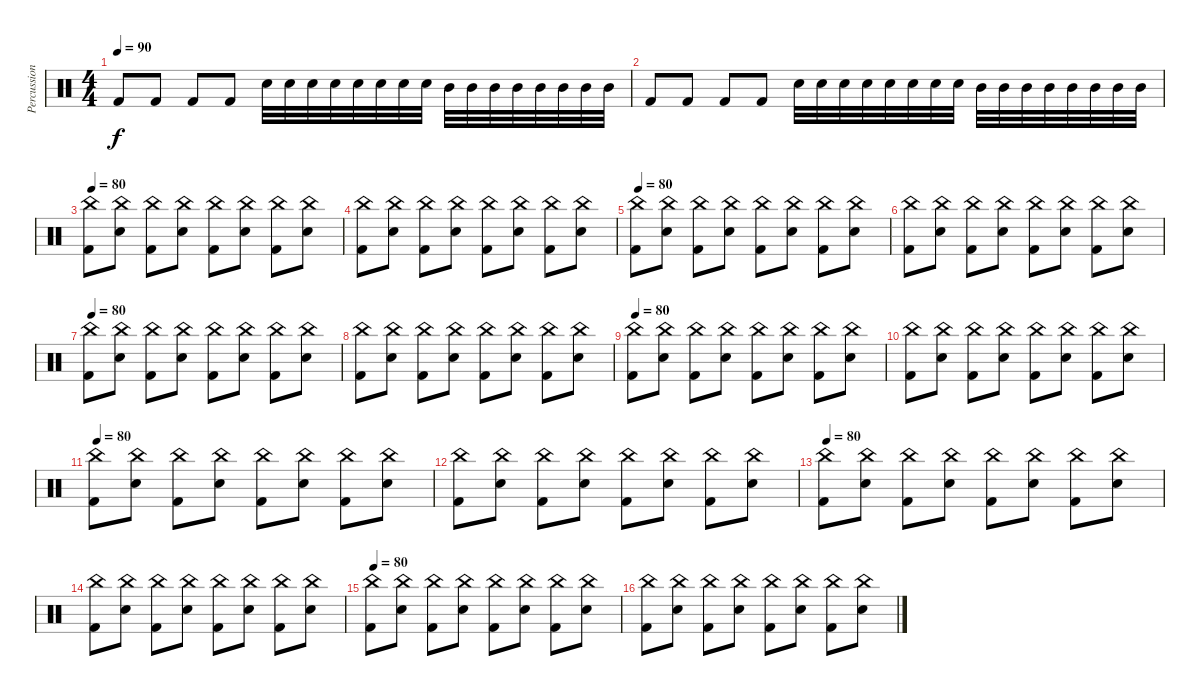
\track ("Percussion" "Percussion") {instrument percussion}
\staff {score}
\articulation defaults
\ts (4 4)
\tempo 90
\clef neutral
\ks c "Kick (hit) 2".8{dy f} "Kick (hit) 2".8 "Kick (hit) 2".8 "Kick (hit) 2".8 "Snare (hit) 2".32 "Snare (hit) 2".32 "Snare (hit) 2".32 "Snare (hit) 2".32 "Snare (hit) 2".32 "Snare (hit) 2".32 "Snare (hit) 2".32 "Snare (hit) 2".32 "Mid Tom (hit)".32 "Mid Tom (hit)".32 "Mid Tom (hit)".32 "Mid Tom (hit)".32 "Mid Tom (hit)".32 "Mid Tom (hit)".32 "Mid Tom (hit)".32 "Mid Tom (hit)".32
|
"Kick (hit) 2".8 "Kick (hit) 2".8 "Kick (hit) 2".8 "Kick (hit) 2".8 "Snare (hit) 2".32 "Snare (hit) 2".32 "Snare (hit) 2".32 "Snare (hit) 2".32 "Snare (hit) 2".32 "Snare (hit) 2".32 "Snare (hit) 2".32 "Snare (hit) 2".32 "Mid Tom (hit)".32 "Mid Tom (hit)".32 "Mid Tom (hit)".32 "Mid Tom (hit)".32 "Mid Tom (hit)".32 "Mid Tom (hit)".32 "Mid Tom (hit)".32 "Mid Tom (hit)".32 |
\tempo 80
("China (hit)" "Kick (hit) 2").8 ("China (hit)" "Snare (hit) 2").8 ("China (hit)" "Kick (hit) 2").8 ("China (hit)" "Snare (hit) 2").8 ("China (hit)" "Kick (hit) 2").8 ("China (hit)" "Snare (hit) 2").8 ("China (hit)" "Kick (hit) 2").8 ("China (hit)" "Snare (hit) 2").8 |
("China (hit)" "Kick (hit) 2").8 ("China (hit)" "Snare (hit) 2").8 ("China (hit)" "Kick (hit) 2").8 ("China (hit)" "Snare (hit) 2").8 ("China (hit)" "Kick (hit) 2").8 ("China (hit)" "Snare (hit) 2").8 ("China (hit)" "Kick (hit) 2").8 ("China (hit)" "Snare (hit) 2").8 |
\tempo 80
("China (hit)" "Kick (hit) 2").8 ("China (hit)" "Snare (hit) 2").8 ("China (hit)" "Kick (hit) 2").8 ("China (hit)" "Snare (hit) 2").8 ("China (hit)" "Kick (hit) 2").8 ("China (hit)" "Snare (hit) 2").8 ("China (hit)" "Kick (hit) 2").8 ("China (hit)" "Snare (hit) 2").8 |
("China (hit)" "Kick (hit) 2").8 ("China (hit)" "Snare (hit) 2").8 ("China (hit)" "Kick (hit) 2").8 ("China (hit)" "Snare (hit) 2").8 ("China (hit)" "Kick (hit) 2").8 ("China (hit)" "Snare (hit) 2").8 ("China (hit)" "Kick (hit) 2").8 ("China (hit)" "Snare (hit) 2").8 |
\tempo 80
("China (hit)" "Kick (hit) 2").8 ("China (hit)" "Snare (hit) 2").8 ("China (hit)" "Kick (hit) 2").8 ("China (hit)" "Snare (hit) 2").8 ("China (hit)" "Kick (hit) 2").8 ("China (hit)" "Snare (hit) 2").8 ("China (hit)" "Kick (hit) 2").8 ("China (hit)" "Snare (hit) 2").8 |
("China (hit)" "Kick (hit) 2").8 ("China (hit)" "Snare (hit) 2").8 ("China (hit)" "Kick (hit) 2").8 ("China (hit)" "Snare (hit) 2").8 ("China (hit)" "Kick (hit) 2").8 ("China (hit)" "Snare (hit) 2").8 ("China (hit)" "Kick (hit) 2").8 ("China (hit)" "Snare (hit) 2").8 |
\tempo 80
("China (hit)" "Kick (hit) 2").8 ("China (hit)" "Snare (hit) 2").8 ("China (hit)" "Kick (hit) 2").8 ("China (hit)" "Snare (hit) 2").8 ("China (hit)" "Kick (hit) 2").8 ("China (hit)" "Snare (hit) 2").8 ("China (hit)" "Kick (hit) 2").8 ("China (hit)" "Snare (hit) 2").8 |
("China (hit)" "Kick (hit) 2").8 ("China (hit)" "Snare (hit) 2").8 ("China (hit)" "Kick (hit) 2").8 ("China (hit)" "Snare (hit) 2").8 ("China (hit)" "Kick (hit) 2").8 ("China (hit)" "Snare (hit) 2").8 ("China (hit)" "Kick (hit) 2").8 ("China (hit)" "Snare (hit) 2").8 |
\tempo 80
("China (hit)" "Kick (hit) 2").8 ("China (hit)" "Snare (hit) 2").8 ("China (hit)" "Kick (hit) 2").8 ("China (hit)" "Snare (hit) 2").8 ("China (hit)" "Kick (hit) 2").8 ("China (hit)" "Snare (hit) 2").8 ("China (hit)" "Kick (hit) 2").8 ("China (hit)" "Snare (hit) 2").8 |
("China (hit)" "Kick (hit) 2").8 ("China (hit)" "Snare (hit) 2").8 ("China (hit)" "Kick (hit) 2").8 ("China (hit)" "Snare (hit) 2").8 ("China (hit)" "Kick (hit) 2").8 ("China (hit)" "Snare (hit) 2").8 ("China (hit)" "Kick (hit) 2").8 ("China (hit)" "Snare (hit) 2").8 |
\tempo 80
("China (hit)" "Kick (hit) 2").8 ("China (hit)" "Snare (hit) 2").8 ("China (hit)" "Kick (hit) 2").8 ("China (hit)" "Snare (hit) 2").8 ("China (hit)" "Kick (hit) 2").8 ("China (hit)" "Snare (hit) 2").8 ("China (hit)" "Kick (hit) 2").8 ("China (hit)" "Snare (hit) 2").8 |
("China (hit)" "Kick (hit) 2").8 ("China (hit)" "Snare (hit) 2").8 ("China (hit)" "Kick (hit) 2").8 ("China (hit)" "Snare (hit) 2").8 ("China (hit)" "Kick (hit) 2").8 ("China (hit)" "Snare (hit) 2").8 ("China (hit)" "Kick (hit) 2").8 ("China (hit)" "Snare (hit) 2").8 |
\tempo 80
("China (hit)" "Kick (hit) 2").8 ("China (hit)" "Snare (hit) 2").8 ("China (hit)" "Kick (hit) 2").8 ("China (hit)" "Snare (hit) 2").8 ("China (hit)" "Kick (hit) 2").8 ("China (hit)" "Snare (hit) 2").8 ("China (hit)" "Kick (hit) 2").8 ("China (hit)" "Snare (hit) 2").8 |
("China (hit)" "Kick (hit) 2").8 ("China (hit)" "Snare (hit) 2").8 ("China (hit)" "Kick (hit) 2").8 ("China (hit)" "Snare (hit) 2").8 ("China (hit)" "Kick (hit) 2").8 ("China (hit)" "Snare (hit) 2").8 ("China (hit)" "Kick (hit) 2").8 ("China (hit)" "Snare (hit) 2").8
